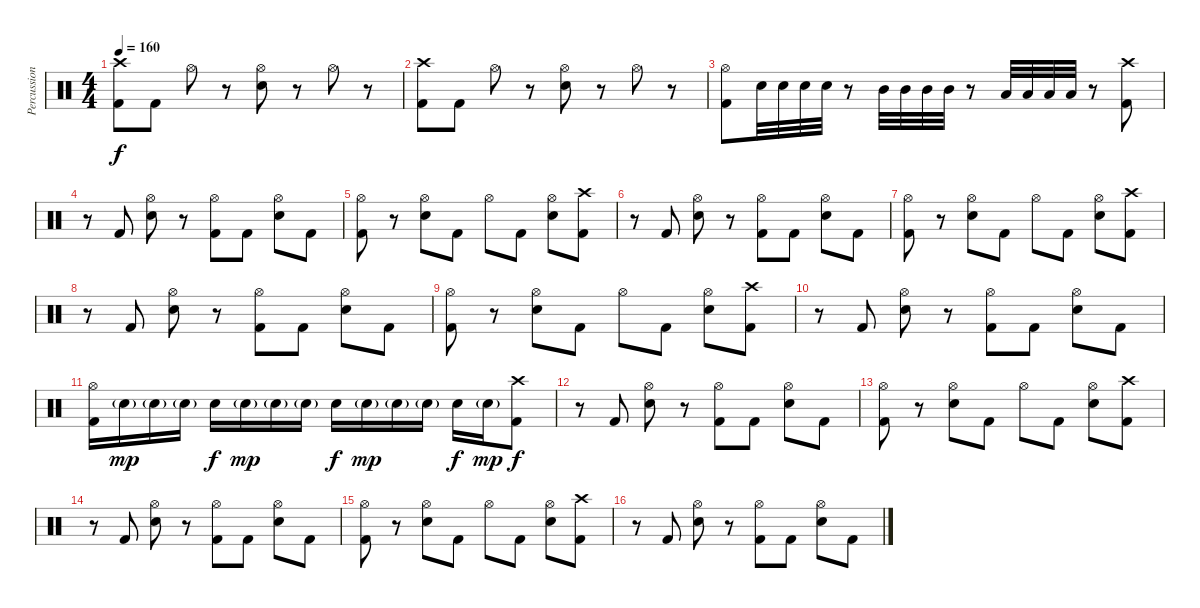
\track ("Percussion" "Percussion") {instrument percussion}
\staff {score}
\articulation defaults
\ts (4 4)
\tempo 160
\clef neutral
\ks c
("Crash high (hit)" "Kick (hit) 2").8{dy f} "Kick (hit) 2".8 "Hi-Hat (open)".8 r.8 ("Hi-Hat (open)" "Electric Snare (hit)").8 r.8 "Hi-Hat (open)".8 r.8 |
("Crash high (hit)" "Kick (hit) 2").8 "Kick (hit) 2".8 "Hi-Hat (open)".8 r.8 ("Hi-Hat (open)" "Electric Snare (hit)").8 r.8 "Hi-Hat (open)".8 r.8 |
("Hi-Hat (open)" "Kick (hit) 2").8 "Electric Snare (hit)".32 "Electric Snare (hit)".32 "Electric Snare (hit)".32 "Electric Snare (hit)".32 r.8 "Mid Tom (hit)".32 "Mid Tom (hit)".32 "Mid Tom (hit)".32 "Mid Tom (hit)".32 r.8 "Low Tom (hit)".32 "Low Tom (hit)".32 "Low Tom (hit)".32 "Low Tom (hit)".32 r.8 ("Crash high (hit)" "Kick (hit) 2").8 |
r.8 "Kick (hit) 2".8 ("Hi-Hat (open)" "Electric Snare (hit)").8 r.8 ("Hi-Hat (open)" "Kick (hit) 2").8 "Kick (hit) 2".8 ("Hi-Hat (open)" "Electric Snare (hit)").8 "Kick (hit) 2".8 |
("Hi-Hat (open)" "Kick (hit) 2").8 r.8 ("Hi-Hat (open)" "Electric Snare (hit)").8 "Kick (hit) 2".8 "Hi-Hat (open)".8 "Kick (hit) 2".8 ("Hi-Hat (open)" "Electric Snare (hit)").8 ("Crash high (hit)" "Kick (hit) 2").8 |
r.8 "Kick (hit) 2".8 ("Hi-Hat (open)" "Electric Snare (hit)").8 r.8 ("Hi-Hat (open)" "Kick (hit) 2").8 "Kick (hit) 2".8 ("Hi-Hat (open)" "Electric Snare (hit)").8 "Kick (hit) 2".8 |
("Hi-Hat (open)" "Kick (hit) 2").8 r.8 ("Hi-Hat (open)" "Electric Snare (hit)").8 "Kick (hit) 2".8 "Hi-Hat (open)".8 "Kick (hit) 2".8 ("Hi-Hat (open)" "Electric Snare (hit)").8 ("Crash high (hit)" "Kick (hit) 2").8 |
r.8 "Kick (hit) 2".8 ("Hi-Hat (open)" "Electric Snare (hit)").8 r.8 ("Hi-Hat (open)" "Kick (hit) 2").8 "Kick (hit) 2".8 ("Hi-Hat (open)" "Electric Snare (hit)").8 "Kick (hit) 2".8 |
("Hi-Hat (open)" "Kick (hit) 2").8 r.8 ("Hi-Hat (open)" "Electric Snare (hit)").8 "Kick (hit) 2".8 "Hi-Hat (open)".8 "Kick (hit) 2".8 ("Hi-Hat (open)" "Electric Snare (hit)").8 ("Crash high (hit)" "Kick (hit) 2").8 |
r.8 "Kick (hit) 2".8 ("Hi-Hat (open)" "Electric Snare (hit)").8 r.8 ("Hi-Hat (open)" "Kick (hit) 2").8 "Kick (hit) 2".8 ("Hi-Hat (open)" "Electric Snare (hit)").8 "Kick (hit) 2".8 |
("Hi-Hat (open)" "Kick (hit) 2").16 "Electric Snare (hit)"{g}.16{dy mp} "Electric Snare (hit)"{g}.16 "Electric Snare (hit)"{g}.16 "Electric Snare (hit)".16{dy f} "Electric Snare (hit)"{g}.16{dy mp} "Electric Snare (hit)"{g}.16 "Electric Snare (hit)"{g}.16 "Electric Snare (hit)".16{dy f} "Electric Snare (hit)"{g}.16{dy mp} "Electric Snare (hit)"{g}.16 "Electric Snare (hit)"{g}.16 "Electric Snare (hit)".16{dy f} "Electric Snare (hit)"{g}.16{dy mp} ("Crash high (hit)" "Kick (hit) 2").8{dy f} |
r.8 "Kick (hit) 2".8 ("Hi-Hat (open)" "Electric Snare (hit)").8 r.8 ("Hi-Hat (open)" "Kick (hit) 2").8 "Kick (hit) 2".8 ("Hi-Hat (open)" "Electric Snare (hit)").8 "Kick (hit) 2".8 |
("Hi-Hat (open)" "Kick (hit) 2").8 r.8 ("Hi-Hat (open)" "Electric Snare (hit)").8 "Kick (hit) 2".8 "Hi-Hat (open)".8 "Kick (hit) 2".8 ("Hi-Hat (open)" "Electric Snare (hit)").8 ("Crash high (hit)" "Kick (hit) 2").8 |
r.8 "Kick (hit) 2".8 ("Hi-Hat (open)" "Electric Snare (hit)").8 r.8 ("Hi-Hat (open)" "Kick (hit) 2").8 "Kick (hit) 2".8 ("Hi-Hat (open)" "Electric Snare (hit)").8 "Kick (hit) 2".8 |
("Hi-Hat (open)" "Kick (hit) 2").8 r.8 ("Hi-Hat (open)" "Electric Snare (hit)").8 "Kick (hit) 2".8 "Hi-Hat (open)".8 "Kick (hit) 2".8 ("Hi-Hat (open)" "Electric Snare (hit)").8 ("Crash high (hit)" "Kick (hit) 2").8 |
r.8 "Kick (hit) 2".8 ("Hi-Hat (open)" "Electric Snare (hit)").8 r.8 ("Hi-Hat (open)" "Kick (hit) 2").8 "Kick (hit) 2".8 ("Hi-Hat (open)" "Electric Snare (hit)").8 "Kick (hit) 2".8
